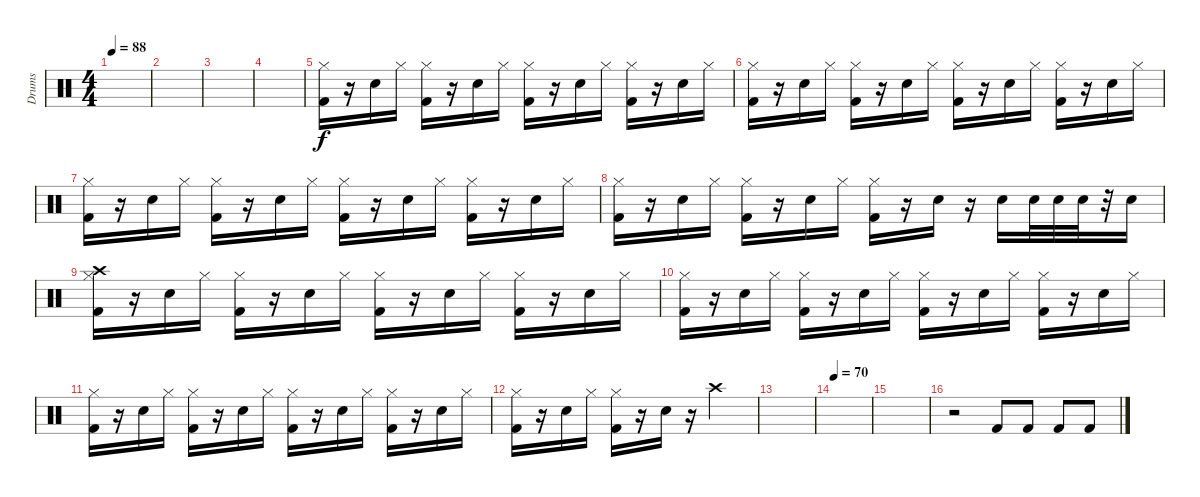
\track ("Drums" "Drums") {instrument percussion}
\staff {score}
\articulation defaults
\ts (4 4)
\tempo 88
\clef neutral
\ks c
|
|
|
|
("Kick (hit) 2" "Hi-Hat (closed)").16 r.16 "Snare (hit) 2".16 "Hi-Hat (closed)".16 ("Kick (hit) 2" "Hi-Hat (closed)").16 r.16 "Snare (hit) 2".16 "Hi-Hat (closed)".16 ("Kick (hit) 2" "Hi-Hat (closed)").16 r.16 "Snare (hit) 2".16 "Hi-Hat (closed)".16 ("Kick (hit) 2" "Hi-Hat (closed)").16 r.16 "Snare (hit) 2".16 "Hi-Hat (closed)".16 |
("Kick (hit) 2" "Hi-Hat (closed)").16 r.16 "Snare (hit) 2".16 "Hi-Hat (closed)".16 ("Kick (hit) 2" "Hi-Hat (closed)").16 r.16 "Snare (hit) 2".16 "Hi-Hat (closed)".16 ("Kick (hit) 2" "Hi-Hat (closed)").16 r.16 "Snare (hit) 2".16 "Hi-Hat (closed)".16 ("Kick (hit) 2" "Hi-Hat (closed)").16 r.16 "Snare (hit) 2".16 "Hi-Hat (closed)".16 |
("Kick (hit) 2" "Hi-Hat (closed)").16 r.16 "Snare (hit) 2".16 "Hi-Hat (closed)".16 ("Kick (hit) 2" "Hi-Hat (closed)").16 r.16 "Snare (hit) 2".16 "Hi-Hat (closed)".16 ("Kick (hit) 2" "Hi-Hat (closed)").16 r.16 "Snare (hit) 2".16 "Hi-Hat (closed)".16 ("Kick (hit) 2" "Hi-Hat (closed)").16 r.16 "Snare (hit) 2".16 "Hi-Hat (closed)".16 |
("Kick (hit) 2" "Hi-Hat (closed)").16 r.16 "Snare (hit) 2".16 "Hi-Hat (closed)".16 ("Kick (hit) 2" "Hi-Hat (closed)").16 r.16 "Snare (hit) 2".16 "Hi-Hat (closed)".16 ("Kick (hit) 2" "Hi-Hat (closed)").16 r.16 "Snare (hit) 2".16 r.16 "Snare (hit) 2".16 "Snare (hit) 2".32 "Snare (hit) 2".32 "Snare (hit) 2".32 r.32 "Snare (hit) 2".16 |
("Crash high (hit)" "Kick (hit) 2" "Hi-Hat (closed)").16 r.16 "Snare (hit) 2".16 "Hi-Hat (closed)".16 ("Kick (hit) 2" "Hi-Hat (closed)").16 r.16 "Snare (hit) 2".16 "Hi-Hat (closed)".16 ("Kick (hit) 2" "Hi-Hat (closed)").16 r.16 "Snare (hit) 2".16 "Hi-Hat (closed)".16 ("Kick (hit) 2" "Hi-Hat (closed)").16 r.16 "Snare (hit) 2".16 "Hi-Hat (closed)".16 |
("Kick (hit) 2" "Hi-Hat (closed)").16 r.16 "Snare (hit) 2".16 "Hi-Hat (closed)".16 ("Kick (hit) 2" "Hi-Hat (closed)").16 r.16 "Snare (hit) 2".16 "Hi-Hat (closed)".16 ("Kick (hit) 2" "Hi-Hat (closed)").16 r.16 "Snare (hit) 2".16 "Hi-Hat (closed)".16 ("Kick (hit) 2" "Hi-Hat (closed)").16 r.16 "Snare (hit) 2".16 "Hi-Hat (closed)".16 |
("Kick (hit) 2" "Hi-Hat (closed)").16 r.16 "Snare (hit) 2".16 "Hi-Hat (closed)".16 ("Kick (hit) 2" "Hi-Hat (closed)").16 r.16 "Snare (hit) 2".16 "Hi-Hat (closed)".16 ("Kick (hit) 2" "Hi-Hat (closed)").16 r.16 "Snare (hit) 2".16 "Hi-Hat (closed)".16 ("Kick (hit) 2" "Hi-Hat (closed)").16 r.16 "Snare (hit) 2".16 "Hi-Hat (closed)".16 |
("Kick (hit) 2" "Hi-Hat (closed)").16 r.16 "Snare (hit) 2".16 "Hi-Hat (closed)".16 ("Kick (hit) 2" "Hi-Hat (closed)").16 r.16 "Snare (hit) 2".16 r.16 "Crash high (hit)".2 |
|
\tempo 70
|
|
r.2 "Kick (hit) 2".8 "Kick (hit) 2".8 "Kick (hit) 2".8 "Kick (hit) 2".8
